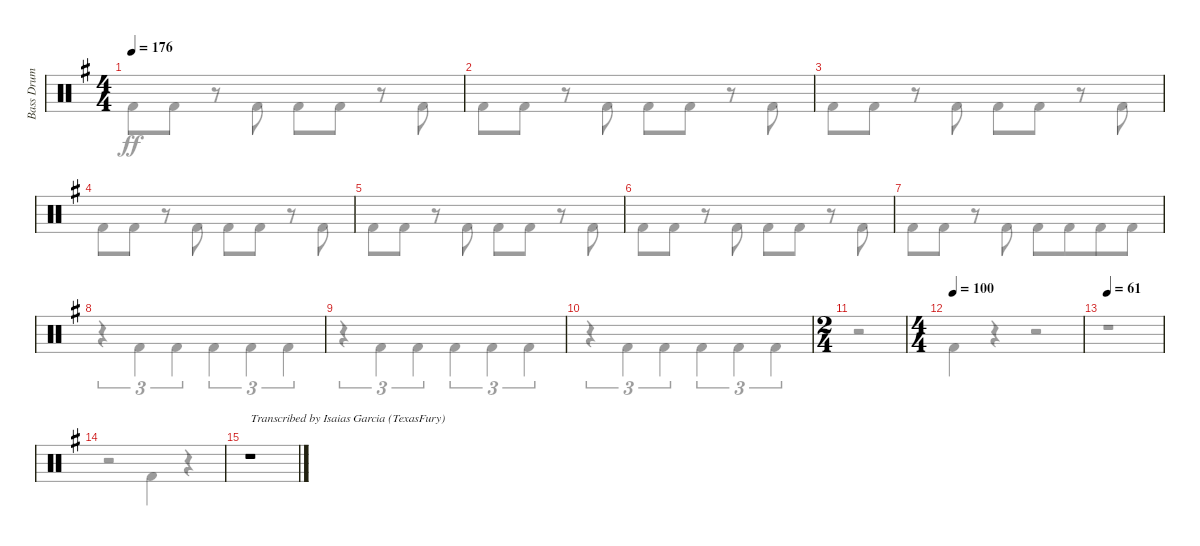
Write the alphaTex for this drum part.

\track ("Bass Drum" "Bass Drum") {instrument percussion}
\staff {score}
\articulation defaults
\voice
\ts (4 4)
\tempo 176
\clef neutral
\ks eminor
|
|
|
|
|
|
|
|
|
\ks g
|
\ts (2 4)
|
\ts (4 4)
\tempo 100
|
\tempo 61
|
|
r.1{txt "Transcribed by Isaias Garcia (TexasFury)"}
\voice
\clef neutral
\ottava regular
\simile none
\ks eminor "Kick (hit) 2".8{dy ff} "Kick (hit) 2".8
r.8 "Kick (hit) 2".8 "Kick (hit) 2".8 "Kick (hit) 2".8 r.8 "Kick (hit) 2".8 |
"Kick (hit) 2".8 "Kick (hit) 2".8 r.8 "Kick (hit) 2".8 "Kick (hit) 2".8 "Kick (hit) 2".8 r.8 "Kick (hit) 2".8 |
"Kick (hit) 2".8 "Kick (hit) 2".8 r.8 "Kick (hit) 2".8 "Kick (hit) 2".8 "Kick (hit) 2".8 r.8 "Kick (hit) 2".8 |
"Kick (hit) 2".8 "Kick (hit) 2".8 r.8 "Kick (hit) 2".8 "Kick (hit) 2".8 "Kick (hit) 2".8 r.8 "Kick (hit) 2".8 |
"Kick (hit) 2".8 "Kick (hit) 2".8 r.8 "Kick (hit) 2".8 "Kick (hit) 2".8 "Kick (hit) 2".8 r.8 "Kick (hit) 2".8 |
"Kick (hit) 2".8 "Kick (hit) 2".8 r.8 "Kick (hit) 2".8 "Kick (hit) 2".8 "Kick (hit) 2".8 r.8 "Kick (hit) 2".8 |
"Kick (hit) 2".8 "Kick (hit) 2".8 r.8 "Kick (hit) 2".8 "Kick (hit) 2".8 "Kick (hit) 2".8{beam merge} "Kick (hit) 2".8 "Kick (hit) 2".8 |
r.4{tu (3 2)} "Kick (hit) 2".4{tu (3 2)} "Kick (hit) 2".4{tu (3 2)} "Kick (hit) 2".4{tu (3 2)} "Kick (hit) 2".4{tu (3 2)} "Kick (hit) 2".4{tu (3 2)} |
r.4{tu (3 2)} "Kick (hit) 2".4{tu (3 2)} "Kick (hit) 2".4{tu (3 2)} "Kick (hit) 2".4{tu (3 2)} "Kick (hit) 2".4{tu (3 2)} "Kick (hit) 2".4{tu (3 2)} |
\ks g
r.4{tu (3 2)} "Kick (hit) 2".4{tu (3 2)} "Kick (hit) 2".4{tu (3 2)} "Kick (hit) 2".4{tu (3 2)} "Kick (hit) 2".4{tu (3 2)} "Kick (hit) 2".4{tu (3 2)} |
r.2 |
"Kick (hit) 2".4 r.4 r.2 |
r.1 |
r.2 "Kick (hit) 2".4 r.4 |
